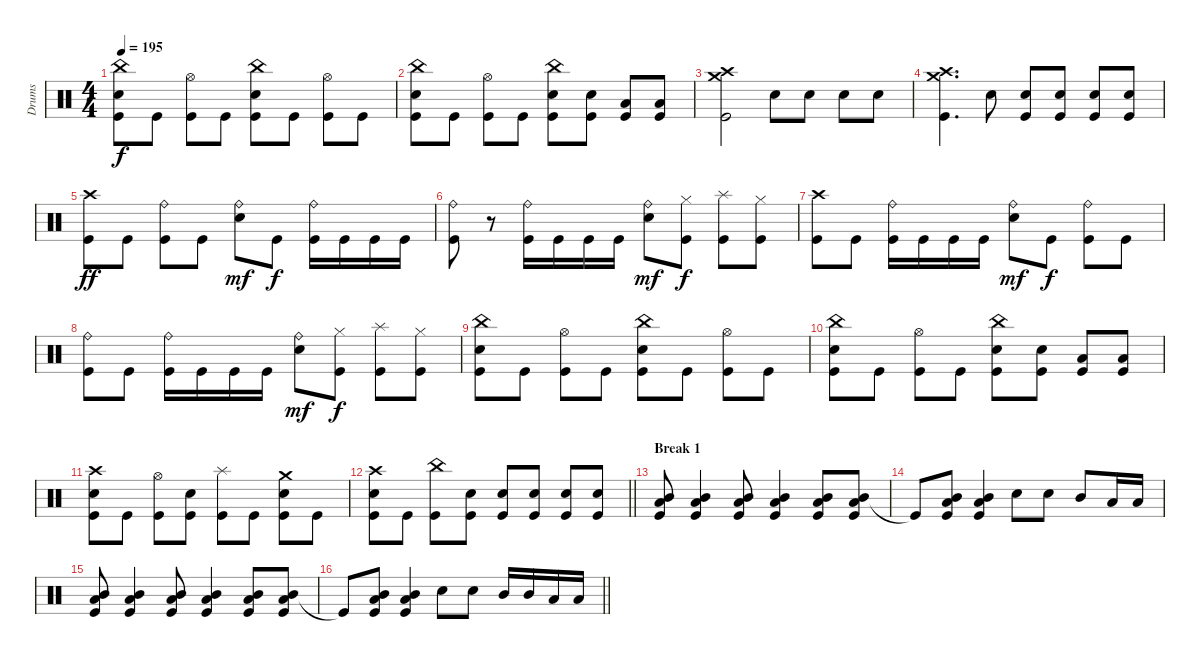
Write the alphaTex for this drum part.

\track ("Drums" "Drums") {instrument percussion}
\staff {score}
\articulation defaults
\ts (4 4)
\tempo 195
\clef neutral
\ks c
("China (hit)" "Snare (hit) 2" "Kick (hit)").8{dy f} "Kick (hit)".8 ("Hi-Hat (open)" "Kick (hit)").8 "Kick (hit)".8 ("China (hit)" "Snare (hit) 2" "Kick (hit)").8 "Kick (hit)".8 ("Hi-Hat (open)" "Kick (hit)").8 "Kick (hit)".8 |
("China (hit)" "Snare (hit) 2" "Kick (hit)").8 "Kick (hit)".8 ("Hi-Hat (open)" "Kick (hit)").8 "Kick (hit)".8 ("China (hit)" "Snare (hit) 2" "Kick (hit)").8 ("Snare (hit) 2" "Kick (hit)").8 ("Low Tom (hit)" "Kick (hit)").8 ("Low Tom (hit)" "Kick (hit)").8 |
("Crash medium (hit)" "Crash high (hit)" "Kick (hit)").2 "Snare (hit) 2".8 "Snare (hit) 2".8 "Snare (hit) 2".8 "Snare (hit) 2".8 |
("Crash medium (hit)" "Crash high (hit)" "Kick (hit)").4{d} "Snare (hit) 2".8 ("Snare (hit) 2" "Kick (hit)").8 ("Snare (hit) 2" "Kick (hit)").8 ("Snare (hit) 2" "Kick (hit)").8 ("Snare (hit) 2" "Kick (hit)").8 |
("Crash high (hit)" "Kick (hit)").8{dy ff} "Kick (hit)".8 ("Ride (bell)" "Kick (hit)").8 "Kick (hit)".8 ("Ride (bell)" "Snare (hit) 2").8{dy mf} "Kick (hit)".8{dy f} ("Ride (bell)" "Kick (hit)").16 "Kick (hit)".16 "Kick (hit)".16 "Kick (hit)".16 |
("Ride (bell)" "Kick (hit)").8 r.8 ("Ride (bell)" "Kick (hit)").16 "Kick (hit)".16 "Kick (hit)".16 "Kick (hit)".16 ("Ride (bell)" "Snare (hit) 2").8{dy mf} ("Hi-Hat (closed)" "Kick (hit)").8{dy f} ("Splash (hit)" "Kick (hit)").8 ("Hi-Hat (closed)" "Kick (hit)").8 |
("Crash high (hit)" "Kick (hit)").8 "Kick (hit)".8 ("Ride (bell)" "Kick (hit)").16 "Kick (hit)".16 "Kick (hit)".16 "Kick (hit)".16 ("Ride (bell)" "Snare (hit) 2").8{dy mf} "Kick (hit)".8{dy f} ("Ride (bell)" "Kick (hit)").8 "Kick (hit)".8 |
("Ride (bell)" "Kick (hit)").8 "Kick (hit)".8 ("Ride (bell)" "Kick (hit)").16 "Kick (hit)".16 "Kick (hit)".16 "Kick (hit)".16 ("Ride (bell)" "Snare (hit) 2").8{dy mf} ("Hi-Hat (closed)" "Kick (hit)").8{dy f} ("Splash (hit)" "Kick (hit)").8 ("Hi-Hat (closed)" "Kick (hit)").8 |
("China (hit)" "Snare (hit) 2" "Kick (hit)").8 "Kick (hit)".8 ("Hi-Hat (open)" "Kick (hit)").8 "Kick (hit)".8 ("China (hit)" "Snare (hit) 2" "Kick (hit)").8 "Kick (hit)".8 ("Hi-Hat (open)" "Kick (hit)").8 "Kick (hit)".8 |
("China (hit)" "Snare (hit) 2" "Kick (hit)").8 "Kick (hit)".8 ("Hi-Hat (open)" "Kick (hit)").8 "Kick (hit)".8 ("China (hit)" "Snare (hit) 2" "Kick (hit)").8 ("Snare (hit) 2" "Kick (hit)").8 ("Low Tom (hit)" "Kick (hit)").8 ("Low Tom (hit)" "Kick (hit)").8 |
("Crash high (hit)" "Snare (hit) 2" "Kick (hit)").8 "Kick (hit)".8 ("Hi-Hat (open)" "Kick (hit)").8 ("Snare (hit) 2" "Kick (hit)").8 ("Splash (hit)" "Kick (hit)").8 "Kick (hit)".8 ("Crash medium (hit)" "Snare (hit) 2" "Kick (hit)").8 "Kick (hit)".8 |
\barLineRight lightlight
("Crash high (hit)" "Snare (hit) 2" "Kick (hit)").8 "Kick (hit)".8 ("China (hit)" "Kick (hit)").8 ("Snare (hit) 2" "Kick (hit)").8 ("Snare (hit) 2" "Kick (hit)").8 ("Snare (hit) 2" "Kick (hit)").8 ("Snare (hit) 2" "Kick (hit)").8 ("Snare (hit) 2" "Kick (hit)").8 |
\section ("" "Break 1")
("Mid Tom (hit)" "Low Floor Tom (hit)" "Kick (hit)").8 ("Mid Tom (hit)" "Low Floor Tom (hit)" "Kick (hit)").4 ("Mid Tom (hit)" "Low Floor Tom (hit)" "Kick (hit)").8 ("Mid Tom (hit)" "Low Floor Tom (hit)" "Kick (hit)").4 ("Mid Tom (hit)" "Low Floor Tom (hit)" "Kick (hit)").8 ("Mid Tom (hit)" "Low Floor Tom (hit)" "Kick (hit)").8 |
"Kick (hit)"{t}.8 ("Mid Tom (hit)" "Low Floor Tom (hit)" "Kick (hit)").8 ("Mid Tom (hit)" "Low Floor Tom (hit)" "Kick (hit)").4 "Snare (hit) 2".8 "Snare (hit) 2".8 "Mid Tom (hit)".8 "Low Tom (hit)".16 "Low Tom (hit)".16 |
("Mid Tom (hit)" "Low Floor Tom (hit)" "Kick (hit)").8 ("Mid Tom (hit)" "Low Floor Tom (hit)" "Kick (hit)").4 ("Mid Tom (hit)" "Low Floor Tom (hit)" "Kick (hit)").8 ("Mid Tom (hit)" "Low Floor Tom (hit)" "Kick (hit)").4 ("Mid Tom (hit)" "Low Floor Tom (hit)" "Kick (hit)").8 ("Mid Tom (hit)" "Low Floor Tom (hit)" "Kick (hit)").8 |
\barLineRight lightlight "Kick (hit)"{t}.8
("Mid Tom (hit)" "Low Floor Tom (hit)" "Kick (hit)").8 ("Mid Tom (hit)" "Low Floor Tom (hit)" "Kick (hit)").4 "Snare (hit) 2".8 "Snare (hit) 2".8 "Mid Tom (hit)".16 "Mid Tom (hit)".16 "Low Tom (hit)".16 "Low Tom (hit)".16
